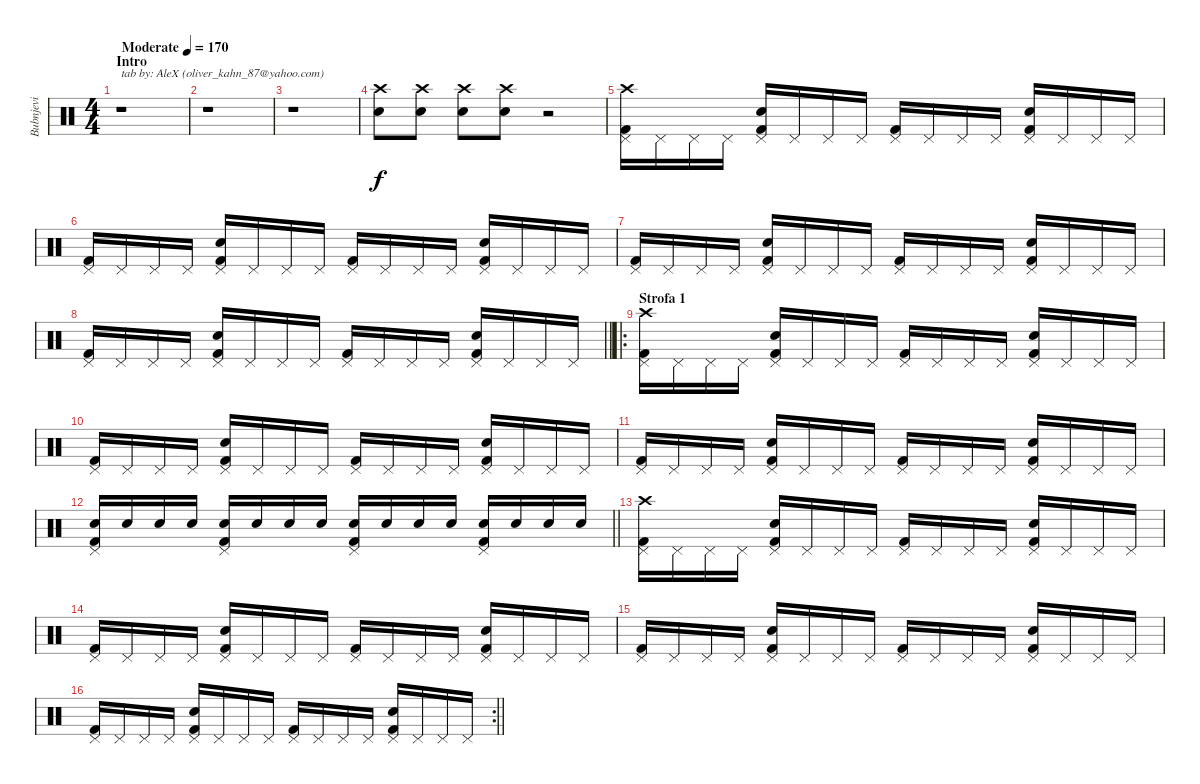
\track ("Bubnjevi" "Bubnjevi") {instrument percussion}
\staff {score}
\articulation defaults
\ts (4 4)
\section ("" "Intro")
\tempo (170 "Moderate")
\clef neutral
\ks c
r.1{txt "tab by: AleX (oliver_kahn_87@yahoo.com)" dy f} |
r.1 |
r.1 |
("Crash high (hit)" "Electric Snare (hit)").8 ("Crash high (hit)" "Electric Snare (hit)").8 ("Crash high (hit)" "Electric Snare (hit)").8 ("Crash high (hit)" "Electric Snare (hit)").8 r.2 |
("Crash high (hit)" "Pedal Hi-Hat (hit)" "Kick (hit) 2").16 "Pedal Hi-Hat (hit)".16 "Pedal Hi-Hat (hit)".16 "Pedal Hi-Hat (hit)".16 ("Pedal Hi-Hat (hit)" "Electric Snare (hit)" "Kick (hit) 2").16 "Pedal Hi-Hat (hit)".16 "Pedal Hi-Hat (hit)".16 "Pedal Hi-Hat (hit)".16 ("Pedal Hi-Hat (hit)" "Kick (hit) 2").16 "Pedal Hi-Hat (hit)".16 "Pedal Hi-Hat (hit)".16 "Pedal Hi-Hat (hit)".16 ("Pedal Hi-Hat (hit)" "Electric Snare (hit)" "Kick (hit) 2").16 "Pedal Hi-Hat (hit)".16 "Pedal Hi-Hat (hit)".16 "Pedal Hi-Hat (hit)".16 |
("Pedal Hi-Hat (hit)" "Kick (hit) 2").16 "Pedal Hi-Hat (hit)".16 "Pedal Hi-Hat (hit)".16 "Pedal Hi-Hat (hit)".16 ("Pedal Hi-Hat (hit)" "Electric Snare (hit)" "Kick (hit) 2").16 "Pedal Hi-Hat (hit)".16 "Pedal Hi-Hat (hit)".16 "Pedal Hi-Hat (hit)".16 ("Pedal Hi-Hat (hit)" "Kick (hit) 2").16 "Pedal Hi-Hat (hit)".16 "Pedal Hi-Hat (hit)".16 "Pedal Hi-Hat (hit)".16 ("Pedal Hi-Hat (hit)" "Electric Snare (hit)" "Kick (hit) 2").16 "Pedal Hi-Hat (hit)".16 "Pedal Hi-Hat (hit)".16 "Pedal Hi-Hat (hit)".16 |
("Pedal Hi-Hat (hit)" "Kick (hit) 2").16 "Pedal Hi-Hat (hit)".16 "Pedal Hi-Hat (hit)".16 "Pedal Hi-Hat (hit)".16 ("Pedal Hi-Hat (hit)" "Electric Snare (hit)" "Kick (hit) 2").16 "Pedal Hi-Hat (hit)".16 "Pedal Hi-Hat (hit)".16 "Pedal Hi-Hat (hit)".16 ("Pedal Hi-Hat (hit)" "Kick (hit) 2").16 "Pedal Hi-Hat (hit)".16 "Pedal Hi-Hat (hit)".16 "Pedal Hi-Hat (hit)".16 ("Pedal Hi-Hat (hit)" "Electric Snare (hit)" "Kick (hit) 2").16 "Pedal Hi-Hat (hit)".16 "Pedal Hi-Hat (hit)".16 "Pedal Hi-Hat (hit)".16 |
\barLineRight lightlight
("Pedal Hi-Hat (hit)" "Kick (hit) 2").16 "Pedal Hi-Hat (hit)".16 "Pedal Hi-Hat (hit)".16 "Pedal Hi-Hat (hit)".16 ("Pedal Hi-Hat (hit)" "Electric Snare (hit)" "Kick (hit) 2").16 "Pedal Hi-Hat (hit)".16 "Pedal Hi-Hat (hit)".16 "Pedal Hi-Hat (hit)".16 ("Pedal Hi-Hat (hit)" "Kick (hit) 2").16 "Pedal Hi-Hat (hit)".16 "Pedal Hi-Hat (hit)".16 "Pedal Hi-Hat (hit)".16 ("Pedal Hi-Hat (hit)" "Electric Snare (hit)" "Kick (hit) 2").16 "Pedal Hi-Hat (hit)".16 "Pedal Hi-Hat (hit)".16 "Pedal Hi-Hat (hit)".16 |
\ro
\section ("" "Strofa 1")
("Crash high (hit)" "Pedal Hi-Hat (hit)" "Kick (hit) 2").16 "Pedal Hi-Hat (hit)".16 "Pedal Hi-Hat (hit)".16 "Pedal Hi-Hat (hit)".16 ("Pedal Hi-Hat (hit)" "Electric Snare (hit)" "Kick (hit) 2").16 "Pedal Hi-Hat (hit)".16 "Pedal Hi-Hat (hit)".16 "Pedal Hi-Hat (hit)".16 ("Pedal Hi-Hat (hit)" "Kick (hit) 2").16 "Pedal Hi-Hat (hit)".16 "Pedal Hi-Hat (hit)".16 "Pedal Hi-Hat (hit)".16 ("Pedal Hi-Hat (hit)" "Electric Snare (hit)" "Kick (hit) 2").16 "Pedal Hi-Hat (hit)".16 "Pedal Hi-Hat (hit)".16 "Pedal Hi-Hat (hit)".16 |
("Pedal Hi-Hat (hit)" "Kick (hit) 2").16 "Pedal Hi-Hat (hit)".16 "Pedal Hi-Hat (hit)".16 "Pedal Hi-Hat (hit)".16 ("Pedal Hi-Hat (hit)" "Electric Snare (hit)" "Kick (hit) 2").16 "Pedal Hi-Hat (hit)".16 "Pedal Hi-Hat (hit)".16 "Pedal Hi-Hat (hit)".16 ("Pedal Hi-Hat (hit)" "Kick (hit) 2").16 "Pedal Hi-Hat (hit)".16 "Pedal Hi-Hat (hit)".16 "Pedal Hi-Hat (hit)".16 ("Pedal Hi-Hat (hit)" "Electric Snare (hit)" "Kick (hit) 2").16 "Pedal Hi-Hat (hit)".16 "Pedal Hi-Hat (hit)".16 "Pedal Hi-Hat (hit)".16 |
("Pedal Hi-Hat (hit)" "Kick (hit) 2").16 "Pedal Hi-Hat (hit)".16 "Pedal Hi-Hat (hit)".16 "Pedal Hi-Hat (hit)".16 ("Pedal Hi-Hat (hit)" "Electric Snare (hit)" "Kick (hit) 2").16 "Pedal Hi-Hat (hit)".16 "Pedal Hi-Hat (hit)".16 "Pedal Hi-Hat (hit)".16 ("Pedal Hi-Hat (hit)" "Kick (hit) 2").16 "Pedal Hi-Hat (hit)".16 "Pedal Hi-Hat (hit)".16 "Pedal Hi-Hat (hit)".16 ("Pedal Hi-Hat (hit)" "Electric Snare (hit)" "Kick (hit) 2").16 "Pedal Hi-Hat (hit)".16 "Pedal Hi-Hat (hit)".16 "Pedal Hi-Hat (hit)".16 |
\barLineRight lightlight
("Pedal Hi-Hat (hit)" "Electric Snare (hit)" "Kick (hit) 2").16 "Electric Snare (hit)".16 "Electric Snare (hit)".16 "Electric Snare (hit)".16 ("Pedal Hi-Hat (hit)" "Electric Snare (hit)" "Kick (hit) 2").16 "Electric Snare (hit)".16 "Electric Snare (hit)".16 "Electric Snare (hit)".16 ("Pedal Hi-Hat (hit)" "Electric Snare (hit)" "Kick (hit) 2").16 "Electric Snare (hit)".16 "Electric Snare (hit)".16 "Electric Snare (hit)".16 ("Pedal Hi-Hat (hit)" "Electric Snare (hit)" "Kick (hit) 2").16 "Electric Snare (hit)".16 "Electric Snare (hit)".16 "Electric Snare (hit)".16 |
("Crash high (hit)" "Pedal Hi-Hat (hit)" "Kick (hit) 2").16 "Pedal Hi-Hat (hit)".16 "Pedal Hi-Hat (hit)".16 "Pedal Hi-Hat (hit)".16 ("Pedal Hi-Hat (hit)" "Electric Snare (hit)" "Kick (hit) 2").16 "Pedal Hi-Hat (hit)".16 "Pedal Hi-Hat (hit)".16 "Pedal Hi-Hat (hit)".16 ("Pedal Hi-Hat (hit)" "Kick (hit) 2").16 "Pedal Hi-Hat (hit)".16 "Pedal Hi-Hat (hit)".16 "Pedal Hi-Hat (hit)".16 ("Pedal Hi-Hat (hit)" "Electric Snare (hit)" "Kick (hit) 2").16 "Pedal Hi-Hat (hit)".16 "Pedal Hi-Hat (hit)".16 "Pedal Hi-Hat (hit)".16 |
("Pedal Hi-Hat (hit)" "Kick (hit) 2").16 "Pedal Hi-Hat (hit)".16 "Pedal Hi-Hat (hit)".16 "Pedal Hi-Hat (hit)".16 ("Pedal Hi-Hat (hit)" "Electric Snare (hit)" "Kick (hit) 2").16 "Pedal Hi-Hat (hit)".16 "Pedal Hi-Hat (hit)".16 "Pedal Hi-Hat (hit)".16 ("Pedal Hi-Hat (hit)" "Kick (hit) 2").16 "Pedal Hi-Hat (hit)".16 "Pedal Hi-Hat (hit)".16 "Pedal Hi-Hat (hit)".16 ("Pedal Hi-Hat (hit)" "Electric Snare (hit)" "Kick (hit) 2").16 "Pedal Hi-Hat (hit)".16 "Pedal Hi-Hat (hit)".16 "Pedal Hi-Hat (hit)".16 |
("Pedal Hi-Hat (hit)" "Kick (hit) 2").16 "Pedal Hi-Hat (hit)".16 "Pedal Hi-Hat (hit)".16 "Pedal Hi-Hat (hit)".16 ("Pedal Hi-Hat (hit)" "Electric Snare (hit)" "Kick (hit) 2").16 "Pedal Hi-Hat (hit)".16 "Pedal Hi-Hat (hit)".16 "Pedal Hi-Hat (hit)".16 ("Pedal Hi-Hat (hit)" "Kick (hit) 2").16 "Pedal Hi-Hat (hit)".16 "Pedal Hi-Hat (hit)".16 "Pedal Hi-Hat (hit)".16 ("Pedal Hi-Hat (hit)" "Electric Snare (hit)" "Kick (hit) 2").16 "Pedal Hi-Hat (hit)".16 "Pedal Hi-Hat (hit)".16 "Pedal Hi-Hat (hit)".16 |
\rc 2
\barLineRight lightlight
("Pedal Hi-Hat (hit)" "Kick (hit) 2").16 "Pedal Hi-Hat (hit)".16 "Pedal Hi-Hat (hit)".16 "Pedal Hi-Hat (hit)".16 ("Pedal Hi-Hat (hit)" "Electric Snare (hit)" "Kick (hit) 2").16 "Pedal Hi-Hat (hit)".16 "Pedal Hi-Hat (hit)".16 "Pedal Hi-Hat (hit)".16 ("Pedal Hi-Hat (hit)" "Kick (hit) 2").16 "Pedal Hi-Hat (hit)".16 "Pedal Hi-Hat (hit)".16 "Pedal Hi-Hat (hit)".16 ("Pedal Hi-Hat (hit)" "Electric Snare (hit)" "Kick (hit) 2").16 "Pedal Hi-Hat (hit)".16 "Pedal Hi-Hat (hit)".16 "Pedal Hi-Hat (hit)".16
